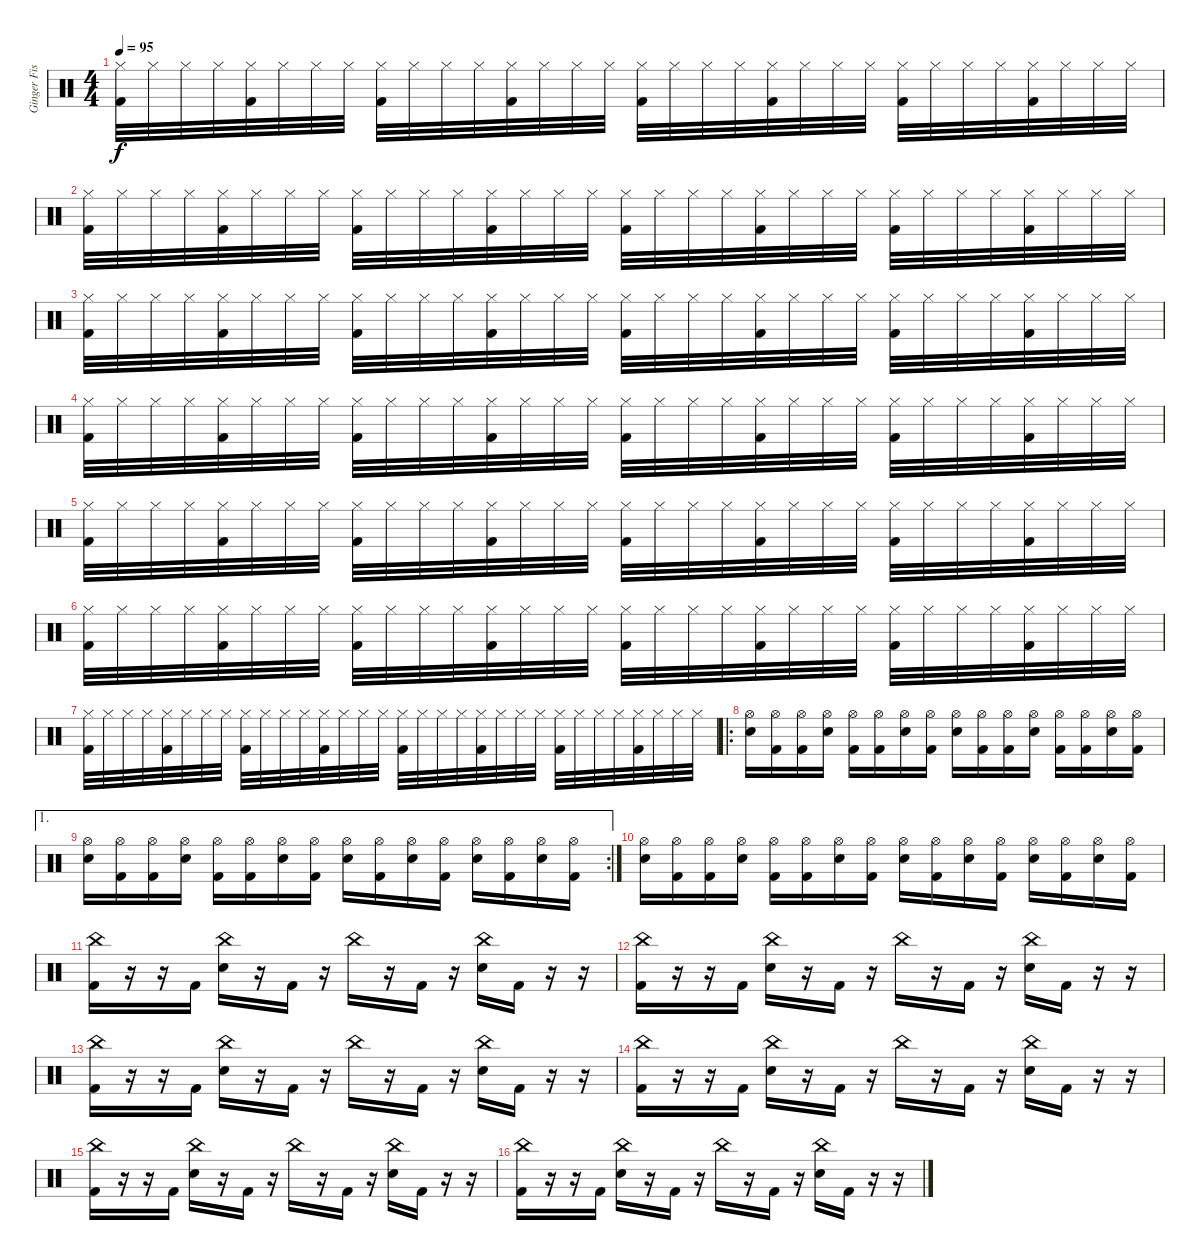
\track ("Ginger Fish" "Ginger Fis") {instrument percussion}
\staff {score}
\articulation defaults
\ts (4 4)
\tempo 95
\clef neutral
\ks c
("Hi-Hat (closed)" "Kick (hit) 2").32{dy f} "Hi-Hat (closed)".32 "Hi-Hat (closed)".32 "Hi-Hat (closed)".32 ("Hi-Hat (closed)" "Kick (hit) 2").32 "Hi-Hat (closed)".32 "Hi-Hat (closed)".32 "Hi-Hat (closed)".32 ("Hi-Hat (closed)" "Kick (hit) 2").32 "Hi-Hat (closed)".32 "Hi-Hat (closed)".32 "Hi-Hat (closed)".32 ("Hi-Hat (closed)" "Kick (hit) 2").32 "Hi-Hat (closed)".32 "Hi-Hat (closed)".32 "Hi-Hat (closed)".32 ("Hi-Hat (closed)" "Kick (hit) 2").32 "Hi-Hat (closed)".32 "Hi-Hat (closed)".32 "Hi-Hat (closed)".32 ("Hi-Hat (closed)" "Kick (hit) 2").32 "Hi-Hat (closed)".32 "Hi-Hat (closed)".32 "Hi-Hat (closed)".32 ("Hi-Hat (closed)" "Kick (hit) 2").32 "Hi-Hat (closed)".32 "Hi-Hat (closed)".32 "Hi-Hat (closed)".32 ("Hi-Hat (closed)" "Kick (hit) 2").32 "Hi-Hat (closed)".32 "Hi-Hat (closed)".32 "Hi-Hat (closed)".32 |
("Hi-Hat (closed)" "Kick (hit) 2").32 "Hi-Hat (closed)".32 "Hi-Hat (closed)".32 "Hi-Hat (closed)".32 ("Hi-Hat (closed)" "Kick (hit) 2").32 "Hi-Hat (closed)".32 "Hi-Hat (closed)".32 "Hi-Hat (closed)".32 ("Hi-Hat (closed)" "Kick (hit) 2").32 "Hi-Hat (closed)".32 "Hi-Hat (closed)".32 "Hi-Hat (closed)".32 ("Hi-Hat (closed)" "Kick (hit) 2").32 "Hi-Hat (closed)".32 "Hi-Hat (closed)".32 "Hi-Hat (closed)".32 ("Hi-Hat (closed)" "Kick (hit) 2").32 "Hi-Hat (closed)".32 "Hi-Hat (closed)".32 "Hi-Hat (closed)".32 ("Hi-Hat (closed)" "Kick (hit) 2").32 "Hi-Hat (closed)".32 "Hi-Hat (closed)".32 "Hi-Hat (closed)".32 ("Hi-Hat (closed)" "Kick (hit) 2").32 "Hi-Hat (closed)".32 "Hi-Hat (closed)".32 "Hi-Hat (closed)".32 ("Hi-Hat (closed)" "Kick (hit) 2").32 "Hi-Hat (closed)".32 "Hi-Hat (closed)".32 "Hi-Hat (closed)".32 |
("Hi-Hat (closed)" "Kick (hit) 2").32 "Hi-Hat (closed)".32 "Hi-Hat (closed)".32 "Hi-Hat (closed)".32 ("Hi-Hat (closed)" "Kick (hit) 2").32 "Hi-Hat (closed)".32 "Hi-Hat (closed)".32 "Hi-Hat (closed)".32 ("Hi-Hat (closed)" "Kick (hit) 2").32 "Hi-Hat (closed)".32 "Hi-Hat (closed)".32 "Hi-Hat (closed)".32 ("Hi-Hat (closed)" "Kick (hit) 2").32 "Hi-Hat (closed)".32 "Hi-Hat (closed)".32 "Hi-Hat (closed)".32 ("Hi-Hat (closed)" "Kick (hit) 2").32 "Hi-Hat (closed)".32 "Hi-Hat (closed)".32 "Hi-Hat (closed)".32 ("Hi-Hat (closed)" "Kick (hit) 2").32 "Hi-Hat (closed)".32 "Hi-Hat (closed)".32 "Hi-Hat (closed)".32 ("Hi-Hat (closed)" "Kick (hit) 2").32 "Hi-Hat (closed)".32 "Hi-Hat (closed)".32 "Hi-Hat (closed)".32 ("Hi-Hat (closed)" "Kick (hit) 2").32 "Hi-Hat (closed)".32 "Hi-Hat (closed)".32 "Hi-Hat (closed)".32 |
("Hi-Hat (closed)" "Kick (hit) 2").32 "Hi-Hat (closed)".32 "Hi-Hat (closed)".32 "Hi-Hat (closed)".32 ("Hi-Hat (closed)" "Kick (hit) 2").32 "Hi-Hat (closed)".32 "Hi-Hat (closed)".32 "Hi-Hat (closed)".32 ("Hi-Hat (closed)" "Kick (hit) 2").32 "Hi-Hat (closed)".32 "Hi-Hat (closed)".32 "Hi-Hat (closed)".32 ("Hi-Hat (closed)" "Kick (hit) 2").32 "Hi-Hat (closed)".32 "Hi-Hat (closed)".32 "Hi-Hat (closed)".32 ("Hi-Hat (closed)" "Kick (hit) 2").32 "Hi-Hat (closed)".32 "Hi-Hat (closed)".32 "Hi-Hat (closed)".32 ("Hi-Hat (closed)" "Kick (hit) 2").32 "Hi-Hat (closed)".32 "Hi-Hat (closed)".32 "Hi-Hat (closed)".32 ("Hi-Hat (closed)" "Kick (hit) 2").32 "Hi-Hat (closed)".32 "Hi-Hat (closed)".32 "Hi-Hat (closed)".32 ("Hi-Hat (closed)" "Kick (hit) 2").32 "Hi-Hat (closed)".32 "Hi-Hat (closed)".32 "Hi-Hat (closed)".32 |
("Hi-Hat (closed)" "Kick (hit) 2").32 "Hi-Hat (closed)".32 "Hi-Hat (closed)".32 "Hi-Hat (closed)".32 ("Hi-Hat (closed)" "Kick (hit) 2").32 "Hi-Hat (closed)".32 "Hi-Hat (closed)".32 "Hi-Hat (closed)".32 ("Hi-Hat (closed)" "Kick (hit) 2").32 "Hi-Hat (closed)".32 "Hi-Hat (closed)".32 "Hi-Hat (closed)".32 ("Hi-Hat (closed)" "Kick (hit) 2").32 "Hi-Hat (closed)".32 "Hi-Hat (closed)".32 "Hi-Hat (closed)".32 ("Hi-Hat (closed)" "Kick (hit) 2").32 "Hi-Hat (closed)".32 "Hi-Hat (closed)".32 "Hi-Hat (closed)".32 ("Hi-Hat (closed)" "Kick (hit) 2").32 "Hi-Hat (closed)".32 "Hi-Hat (closed)".32 "Hi-Hat (closed)".32 ("Hi-Hat (closed)" "Kick (hit) 2").32 "Hi-Hat (closed)".32 "Hi-Hat (closed)".32 "Hi-Hat (closed)".32 ("Hi-Hat (closed)" "Kick (hit) 2").32 "Hi-Hat (closed)".32 "Hi-Hat (closed)".32 "Hi-Hat (closed)".32 |
("Hi-Hat (closed)" "Kick (hit) 2").32 "Hi-Hat (closed)".32 "Hi-Hat (closed)".32 "Hi-Hat (closed)".32 ("Hi-Hat (closed)" "Kick (hit) 2").32 "Hi-Hat (closed)".32 "Hi-Hat (closed)".32 "Hi-Hat (closed)".32 ("Hi-Hat (closed)" "Kick (hit) 2").32 "Hi-Hat (closed)".32 "Hi-Hat (closed)".32 "Hi-Hat (closed)".32 ("Hi-Hat (closed)" "Kick (hit) 2").32 "Hi-Hat (closed)".32 "Hi-Hat (closed)".32 "Hi-Hat (closed)".32 ("Hi-Hat (closed)" "Kick (hit) 2").32 "Hi-Hat (closed)".32 "Hi-Hat (closed)".32 "Hi-Hat (closed)".32 ("Hi-Hat (closed)" "Kick (hit) 2").32 "Hi-Hat (closed)".32 "Hi-Hat (closed)".32 "Hi-Hat (closed)".32 ("Hi-Hat (closed)" "Kick (hit) 2").32 "Hi-Hat (closed)".32 "Hi-Hat (closed)".32 "Hi-Hat (closed)".32 ("Hi-Hat (closed)" "Kick (hit) 2").32 "Hi-Hat (closed)".32 "Hi-Hat (closed)".32 "Hi-Hat (closed)".32 |
("Hi-Hat (closed)" "Kick (hit) 2").32 "Hi-Hat (closed)".32 "Hi-Hat (closed)".32 "Hi-Hat (closed)".32 ("Hi-Hat (closed)" "Kick (hit) 2").32 "Hi-Hat (closed)".32 "Hi-Hat (closed)".32 "Hi-Hat (closed)".32 ("Hi-Hat (closed)" "Kick (hit) 2").32 "Hi-Hat (closed)".32 "Hi-Hat (closed)".32 "Hi-Hat (closed)".32 ("Hi-Hat (closed)" "Kick (hit) 2").32 "Hi-Hat (closed)".32 "Hi-Hat (closed)".32 "Hi-Hat (closed)".32 ("Hi-Hat (closed)" "Kick (hit) 2").32 "Hi-Hat (closed)".32 "Hi-Hat (closed)".32 "Hi-Hat (closed)".32 ("Hi-Hat (closed)" "Kick (hit) 2").32 "Hi-Hat (closed)".32 "Hi-Hat (closed)".32 "Hi-Hat (closed)".32 ("Hi-Hat (closed)" "Kick (hit) 2").32 "Hi-Hat (closed)".32 "Hi-Hat (closed)".32 "Hi-Hat (closed)".32 ("Hi-Hat (closed)" "Kick (hit) 2").32 "Hi-Hat (closed)".32 "Hi-Hat (closed)".32 "Hi-Hat (closed)".32 |
\ro
("Hi-Hat (open)" "Electric Snare (hit)").16 ("Hi-Hat (open)" "Kick (hit) 2").16 ("Hi-Hat (open)" "Kick (hit) 2").16 ("Hi-Hat (open)" "Electric Snare (hit)").16 ("Hi-Hat (open)" "Kick (hit) 2").16 ("Hi-Hat (open)" "Kick (hit) 2").16 ("Hi-Hat (open)" "Electric Snare (hit)").16 ("Hi-Hat (open)" "Kick (hit) 2").16 ("Hi-Hat (open)" "Electric Snare (hit)").16 ("Hi-Hat (open)" "Kick (hit) 2").16 ("Hi-Hat (open)" "Kick (hit) 2").16 ("Hi-Hat (open)" "Electric Snare (hit)").16 ("Hi-Hat (open)" "Kick (hit) 2").16 ("Hi-Hat (open)" "Kick (hit) 2").16 ("Hi-Hat (open)" "Electric Snare (hit)").16 ("Hi-Hat (open)" "Kick (hit) 2").16 |
\ae 1
\rc 2
("Hi-Hat (open)" "Electric Snare (hit)").16 ("Hi-Hat (open)" "Kick (hit) 2").16 ("Hi-Hat (open)" "Kick (hit) 2").16 ("Hi-Hat (open)" "Electric Snare (hit)").16 ("Hi-Hat (open)" "Kick (hit) 2").16 ("Hi-Hat (open)" "Kick (hit) 2").16 ("Hi-Hat (open)" "Electric Snare (hit)").16 ("Hi-Hat (open)" "Kick (hit) 2").16 ("Hi-Hat (open)" "Electric Snare (hit)").16 ("Hi-Hat (open)" "Kick (hit) 2").16 ("Hi-Hat (open)" "Electric Snare (hit)").16 ("Hi-Hat (open)" "Kick (hit) 2").16 ("Hi-Hat (open)" "Electric Snare (hit)").16 ("Hi-Hat (open)" "Kick (hit) 2").16 ("Hi-Hat (open)" "Electric Snare (hit)").16 ("Hi-Hat (open)" "Kick (hit) 2").16 |
("Hi-Hat (open)" "Electric Snare (hit)").16 ("Hi-Hat (open)" "Kick (hit) 2").16 ("Hi-Hat (open)" "Kick (hit) 2").16 ("Hi-Hat (open)" "Electric Snare (hit)").16 ("Hi-Hat (open)" "Kick (hit) 2").16 ("Hi-Hat (open)" "Kick (hit) 2").16 ("Hi-Hat (open)" "Electric Snare (hit)").16 ("Hi-Hat (open)" "Kick (hit) 2").16 ("Hi-Hat (open)" "Electric Snare (hit)").16 ("Hi-Hat (open)" "Kick (hit) 2").16 ("Hi-Hat (open)" "Electric Snare (hit)").16 ("Hi-Hat (open)" "Kick (hit) 2").16 ("Hi-Hat (open)" "Electric Snare (hit)").16 ("Hi-Hat (open)" "Kick (hit) 2").16 ("Hi-Hat (open)" "Electric Snare (hit)").16 ("Hi-Hat (open)" "Kick (hit) 2").16 |
("China (hit)" "Kick (hit) 2").16 r.16 r.16 "Kick (hit) 2".16 ("China (hit)" "Electric Snare (hit)").16 r.16 "Kick (hit) 2".16 r.16 "China (hit)".16 r.16 "Kick (hit) 2".16 r.16 ("China (hit)" "Electric Snare (hit)").16 "Kick (hit) 2".16 r.16 r.16 |
("China (hit)" "Kick (hit) 2").16 r.16 r.16 "Kick (hit) 2".16 ("China (hit)" "Electric Snare (hit)").16 r.16 "Kick (hit) 2".16 r.16 "China (hit)".16 r.16 "Kick (hit) 2".16 r.16 ("China (hit)" "Electric Snare (hit)").16 "Kick (hit) 2".16 r.16 r.16 |
("China (hit)" "Kick (hit) 2").16 r.16 r.16 "Kick (hit) 2".16 ("China (hit)" "Electric Snare (hit)").16 r.16 "Kick (hit) 2".16 r.16 "China (hit)".16 r.16 "Kick (hit) 2".16 r.16 ("China (hit)" "Electric Snare (hit)").16 "Kick (hit) 2".16 r.16 r.16 |
("China (hit)" "Kick (hit) 2").16 r.16 r.16 "Kick (hit) 2".16 ("China (hit)" "Electric Snare (hit)").16 r.16 "Kick (hit) 2".16 r.16 "China (hit)".16 r.16 "Kick (hit) 2".16 r.16 ("China (hit)" "Electric Snare (hit)").16 "Kick (hit) 2".16 r.16 r.16 |
("China (hit)" "Kick (hit) 2").16 r.16 r.16 "Kick (hit) 2".16 ("China (hit)" "Electric Snare (hit)").16 r.16 "Kick (hit) 2".16 r.16 "China (hit)".16 r.16 "Kick (hit) 2".16 r.16 ("China (hit)" "Electric Snare (hit)").16 "Kick (hit) 2".16 r.16 r.16 |
("China (hit)" "Kick (hit) 2").16 r.16 r.16 "Kick (hit) 2".16 ("China (hit)" "Electric Snare (hit)").16 r.16 "Kick (hit) 2".16 r.16 "China (hit)".16 r.16 "Kick (hit) 2".16 r.16 ("China (hit)" "Electric Snare (hit)").16 "Kick (hit) 2".16 r.16 r.16
